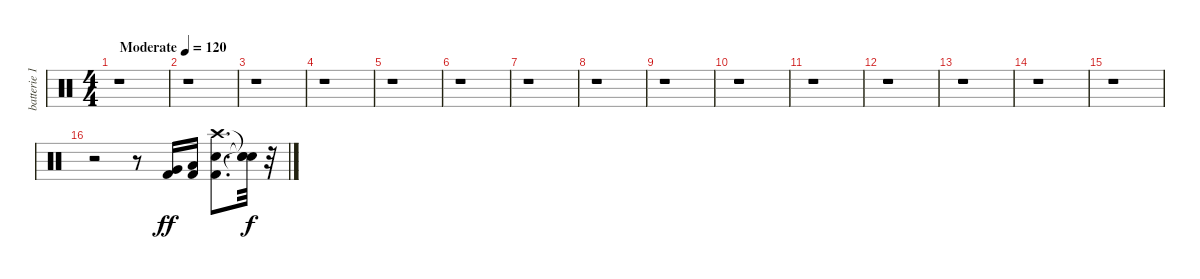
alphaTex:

\track ("batterie 1" "batterie 1") {instrument percussion}
\staff {score}
\articulation defaults
\ts (4 4)
\tempo (120 "Moderate")
\clef neutral
\ks c
r.1{dy ff} |
r.1 |
r.1 |
r.1 |
r.1 |
r.1 |
r.1 |
r.1 |
r.1 |
r.1 |
r.1 |
r.1 |
r.1 |
r.1 |
r.1 |
r.2 r.8 ("Kick (hit) 2" "Very Low Tom (hit)").16 ("Kick (hit) 2" "Low Floor Tom (hit)").16 ("Kick (hit) 2" "Electric Snare (hit)" "Crash high (hit)").8{d} ("Snare (hit)"{t} "Snare (hit)"{t} "Snare (hit)"{t}).32{dy f} r.32
